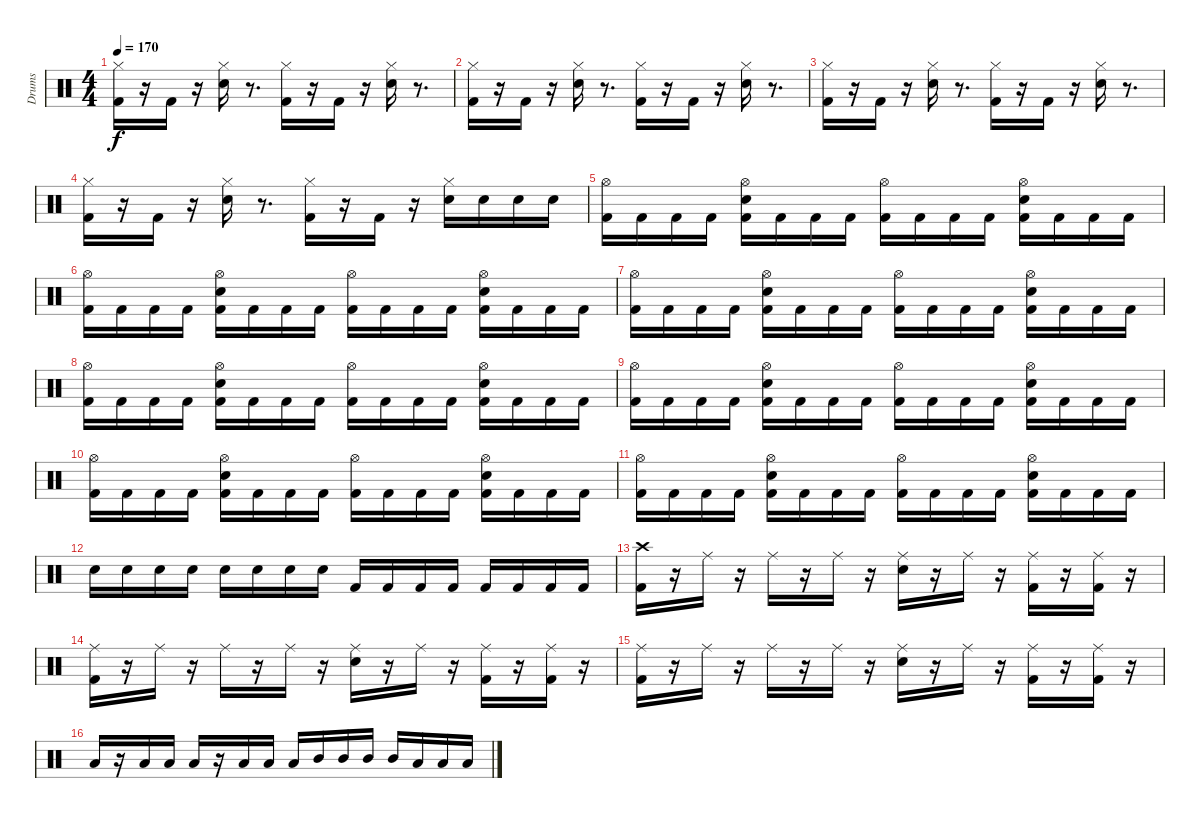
\track ("Drums               " "Drums     ") {instrument percussion}
\staff {score}
\articulation defaults
\ts (4 4)
\tempo 170
\clef neutral
\ks c
("Kick (hit) 2" "Hi-Hat (closed)").16{dy f} r.16 "Kick (hit) 2".16 r.16 ("Snare (hit) 2" "Hi-Hat (closed)").16 r.8{d} ("Kick (hit) 2" "Hi-Hat (closed)").16 r.16 "Kick (hit) 2".16 r.16 ("Snare (hit) 2" "Hi-Hat (closed)").16 r.8{d} |
("Kick (hit) 2" "Hi-Hat (closed)").16 r.16 "Kick (hit) 2".16 r.16 ("Snare (hit) 2" "Hi-Hat (closed)").16 r.8{d} ("Kick (hit) 2" "Hi-Hat (closed)").16 r.16 "Kick (hit) 2".16 r.16 ("Snare (hit) 2" "Hi-Hat (closed)").16 r.8{d} |
("Kick (hit) 2" "Hi-Hat (closed)").16 r.16 "Kick (hit) 2".16 r.16 ("Snare (hit) 2" "Hi-Hat (closed)").16 r.8{d} ("Kick (hit) 2" "Hi-Hat (closed)").16 r.16 "Kick (hit) 2".16 r.16 ("Snare (hit) 2" "Hi-Hat (closed)").16 r.8{d} |
("Kick (hit) 2" "Hi-Hat (closed)").16 r.16 "Kick (hit) 2".16 r.16 ("Snare (hit) 2" "Hi-Hat (closed)").16 r.8{d} ("Kick (hit) 2" "Hi-Hat (closed)").16 r.16 "Kick (hit) 2".16 r.16 ("Snare (hit) 2" "Hi-Hat (closed)").16 "Snare (hit) 2".16 "Snare (hit) 2".16 "Snare (hit) 2".16 |
("Kick (hit) 2" "Hi-Hat (open)").16 "Kick (hit) 2".16 "Kick (hit) 2".16 "Kick (hit) 2".16 ("Kick (hit) 2" "Snare (hit) 2" "Hi-Hat (open)").16 "Kick (hit) 2".16 "Kick (hit) 2".16 "Kick (hit) 2".16 ("Kick (hit) 2" "Hi-Hat (open)").16 "Kick (hit) 2".16 "Kick (hit) 2".16 "Kick (hit) 2".16 ("Kick (hit) 2" "Snare (hit) 2" "Hi-Hat (open)").16 "Kick (hit) 2".16 "Kick (hit) 2".16 "Kick (hit) 2".16 |
("Kick (hit) 2" "Hi-Hat (open)").16 "Kick (hit) 2".16 "Kick (hit) 2".16 "Kick (hit) 2".16 ("Kick (hit) 2" "Snare (hit) 2" "Hi-Hat (open)").16 "Kick (hit) 2".16 "Kick (hit) 2".16 "Kick (hit) 2".16 ("Kick (hit) 2" "Hi-Hat (open)").16 "Kick (hit) 2".16 "Kick (hit) 2".16 "Kick (hit) 2".16 ("Kick (hit) 2" "Snare (hit) 2" "Hi-Hat (open)").16 "Kick (hit) 2".16 "Kick (hit) 2".16 "Kick (hit) 2".16 |
("Kick (hit) 2" "Hi-Hat (open)").16 "Kick (hit) 2".16 "Kick (hit) 2".16 "Kick (hit) 2".16 ("Kick (hit) 2" "Snare (hit) 2" "Hi-Hat (open)").16 "Kick (hit) 2".16 "Kick (hit) 2".16 "Kick (hit) 2".16 ("Kick (hit) 2" "Hi-Hat (open)").16 "Kick (hit) 2".16 "Kick (hit) 2".16 "Kick (hit) 2".16 ("Kick (hit) 2" "Snare (hit) 2" "Hi-Hat (open)").16 "Kick (hit) 2".16 "Kick (hit) 2".16 "Kick (hit) 2".16 |
("Kick (hit) 2" "Hi-Hat (open)").16 "Kick (hit) 2".16 "Kick (hit) 2".16 "Kick (hit) 2".16 ("Kick (hit) 2" "Snare (hit) 2" "Hi-Hat (open)").16 "Kick (hit) 2".16 "Kick (hit) 2".16 "Kick (hit) 2".16 ("Kick (hit) 2" "Hi-Hat (open)").16 "Kick (hit) 2".16 "Kick (hit) 2".16 "Kick (hit) 2".16 ("Kick (hit) 2" "Snare (hit) 2" "Hi-Hat (open)").16 "Kick (hit) 2".16 "Kick (hit) 2".16 "Kick (hit) 2".16 |
("Kick (hit) 2" "Hi-Hat (open)").16 "Kick (hit) 2".16 "Kick (hit) 2".16 "Kick (hit) 2".16 ("Kick (hit) 2" "Snare (hit) 2" "Hi-Hat (open)").16 "Kick (hit) 2".16 "Kick (hit) 2".16 "Kick (hit) 2".16 ("Kick (hit) 2" "Hi-Hat (open)").16 "Kick (hit) 2".16 "Kick (hit) 2".16 "Kick (hit) 2".16 ("Kick (hit) 2" "Snare (hit) 2" "Hi-Hat (open)").16 "Kick (hit) 2".16 "Kick (hit) 2".16 "Kick (hit) 2".16 |
("Kick (hit) 2" "Hi-Hat (open)").16 "Kick (hit) 2".16 "Kick (hit) 2".16 "Kick (hit) 2".16 ("Kick (hit) 2" "Snare (hit) 2" "Hi-Hat (open)").16 "Kick (hit) 2".16 "Kick (hit) 2".16 "Kick (hit) 2".16 ("Kick (hit) 2" "Hi-Hat (open)").16 "Kick (hit) 2".16 "Kick (hit) 2".16 "Kick (hit) 2".16 ("Kick (hit) 2" "Snare (hit) 2" "Hi-Hat (open)").16 "Kick (hit) 2".16 "Kick (hit) 2".16 "Kick (hit) 2".16 |
("Kick (hit) 2" "Hi-Hat (open)").16 "Kick (hit) 2".16 "Kick (hit) 2".16 "Kick (hit) 2".16 ("Kick (hit) 2" "Snare (hit) 2" "Hi-Hat (open)").16 "Kick (hit) 2".16 "Kick (hit) 2".16 "Kick (hit) 2".16 ("Kick (hit) 2" "Hi-Hat (open)").16 "Kick (hit) 2".16 "Kick (hit) 2".16 "Kick (hit) 2".16 ("Kick (hit) 2" "Snare (hit) 2" "Hi-Hat (open)").16 "Kick (hit) 2".16 "Kick (hit) 2".16 "Kick (hit) 2".16 |
"Snare (hit) 2".16 "Snare (hit) 2".16 "Snare (hit) 2".16 "Snare (hit) 2".16 "Snare (hit) 2".16 "Snare (hit) 2".16 "Snare (hit) 2".16 "Snare (hit) 2".16 "Kick (hit) 2".16 "Kick (hit) 2".16 "Kick (hit) 2".16 "Kick (hit) 2".16 "Kick (hit) 2".16 "Kick (hit) 2".16 "Kick (hit) 2".16 "Kick (hit) 2".16 |
("Kick (hit) 2" "Crash high (hit)").16 r.16 "Ride (middle)".16 r.16 "Ride (middle)".16 r.16 "Ride (middle)".16 r.16 ("Snare (hit) 2" "Ride (middle)").16 r.16 "Ride (middle)".16 r.16 ("Kick (hit) 2" "Ride (middle)").16 r.16 ("Kick (hit) 2" "Ride (middle)").16 r.16 |
("Kick (hit) 2" "Ride (middle)").16 r.16 "Ride (middle)".16 r.16 "Ride (middle)".16 r.16 "Ride (middle)".16 r.16 ("Snare (hit) 2" "Ride (middle)").16 r.16 "Ride (middle)".16 r.16 ("Kick (hit) 2" "Ride (middle)").16 r.16 ("Kick (hit) 2" "Ride (middle)").16 r.16 |
("Kick (hit) 2" "Ride (middle)").16 r.16 "Ride (middle)".16 r.16 "Ride (middle)".16 r.16 "Ride (middle)".16 r.16 ("Snare (hit) 2" "Ride (middle)").16 r.16 "Ride (middle)".16 r.16 ("Kick (hit) 2" "Ride (middle)").16 r.16 ("Kick (hit) 2" "Ride (middle)").16 r.16 |
"Low Floor Tom (hit)".16 r.16 "Low Floor Tom (hit)".16 "Low Floor Tom (hit)".16 "Low Floor Tom (hit)".16 r.16 "Low Tom (hit)".16 "Low Tom (hit)".16 "Low Tom (hit)".16 "Mid Tom (hit)".16 "Mid Tom (hit)".16 "Mid Tom (hit)".16 "Mid Tom (hit)".16 "Low Tom (hit)".16 "Low Tom (hit)".16 "Low Tom (hit)".16
